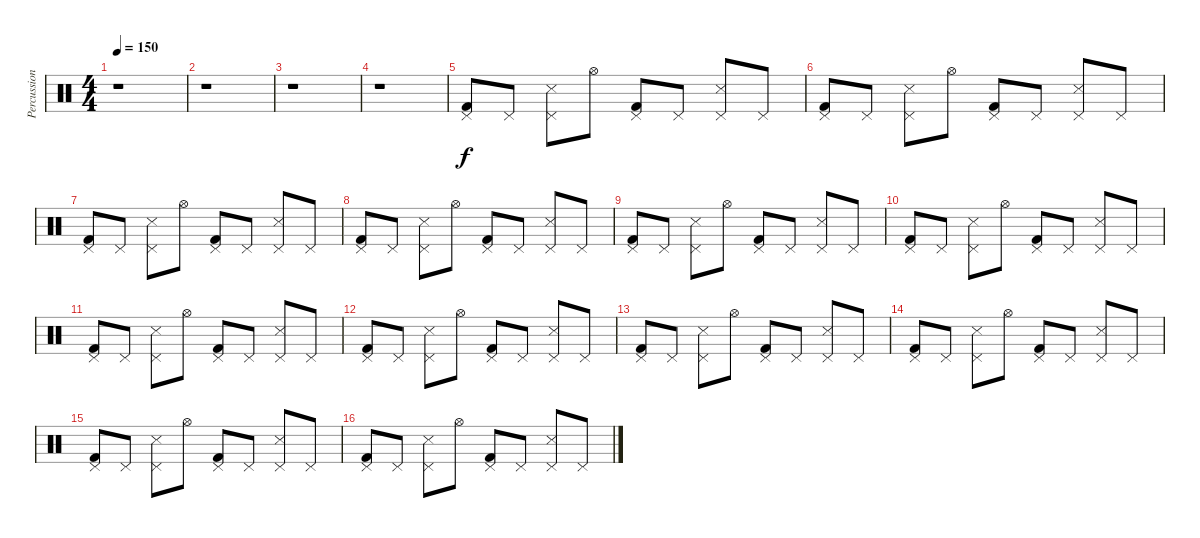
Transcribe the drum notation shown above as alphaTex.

\track ("Percussion" "Percussion") {instrument percussion}
\staff {score}
\articulation defaults
\ts (4 4)
\tempo 150
\clef neutral
\ks c
r.1{dy f} |
r.1 |
r.1 |
r.1 |
("Kick (hit) 2" "Pedal Hi-Hat (hit)").8 "Pedal Hi-Hat (hit)".8 ("Snare (side stick) 3" "Pedal Hi-Hat (hit)").8 "Hi-Hat (open)".8 ("Kick (hit) 2" "Pedal Hi-Hat (hit)").8 "Pedal Hi-Hat (hit)".8 ("Snare (side stick) 3" "Pedal Hi-Hat (hit)").8 "Pedal Hi-Hat (hit)".8 |
("Kick (hit) 2" "Pedal Hi-Hat (hit)").8 "Pedal Hi-Hat (hit)".8 ("Snare (side stick) 3" "Pedal Hi-Hat (hit)").8 "Hi-Hat (open)".8 ("Kick (hit) 2" "Pedal Hi-Hat (hit)").8 "Pedal Hi-Hat (hit)".8 ("Snare (side stick) 3" "Pedal Hi-Hat (hit)").8 "Pedal Hi-Hat (hit)".8 |
("Kick (hit) 2" "Pedal Hi-Hat (hit)").8 "Pedal Hi-Hat (hit)".8 ("Snare (side stick) 3" "Pedal Hi-Hat (hit)").8 "Hi-Hat (open)".8 ("Kick (hit) 2" "Pedal Hi-Hat (hit)").8 "Pedal Hi-Hat (hit)".8 ("Snare (side stick) 3" "Pedal Hi-Hat (hit)").8 "Pedal Hi-Hat (hit)".8 |
("Kick (hit) 2" "Pedal Hi-Hat (hit)").8 "Pedal Hi-Hat (hit)".8 ("Snare (side stick) 3" "Pedal Hi-Hat (hit)").8 "Hi-Hat (open)".8 ("Kick (hit) 2" "Pedal Hi-Hat (hit)").8 "Pedal Hi-Hat (hit)".8 ("Snare (side stick) 3" "Pedal Hi-Hat (hit)").8 "Pedal Hi-Hat (hit)".8 |
("Kick (hit) 2" "Pedal Hi-Hat (hit)").8 "Pedal Hi-Hat (hit)".8 ("Snare (side stick) 3" "Pedal Hi-Hat (hit)").8 "Hi-Hat (open)".8 ("Kick (hit) 2" "Pedal Hi-Hat (hit)").8 "Pedal Hi-Hat (hit)".8 ("Snare (side stick) 3" "Pedal Hi-Hat (hit)").8 "Pedal Hi-Hat (hit)".8 |
("Kick (hit) 2" "Pedal Hi-Hat (hit)").8 "Pedal Hi-Hat (hit)".8 ("Snare (side stick) 3" "Pedal Hi-Hat (hit)").8 "Hi-Hat (open)".8 ("Kick (hit) 2" "Pedal Hi-Hat (hit)").8 "Pedal Hi-Hat (hit)".8 ("Snare (side stick) 3" "Pedal Hi-Hat (hit)").8 "Pedal Hi-Hat (hit)".8 |
("Kick (hit) 2" "Pedal Hi-Hat (hit)").8 "Pedal Hi-Hat (hit)".8 ("Snare (side stick) 3" "Pedal Hi-Hat (hit)").8 "Hi-Hat (open)".8 ("Kick (hit) 2" "Pedal Hi-Hat (hit)").8 "Pedal Hi-Hat (hit)".8 ("Snare (side stick) 3" "Pedal Hi-Hat (hit)").8 "Pedal Hi-Hat (hit)".8 |
("Kick (hit) 2" "Pedal Hi-Hat (hit)").8 "Pedal Hi-Hat (hit)".8 ("Snare (side stick) 3" "Pedal Hi-Hat (hit)").8 "Hi-Hat (open)".8 ("Kick (hit) 2" "Pedal Hi-Hat (hit)").8 "Pedal Hi-Hat (hit)".8 ("Snare (side stick) 3" "Pedal Hi-Hat (hit)").8 "Pedal Hi-Hat (hit)".8 |
("Kick (hit) 2" "Pedal Hi-Hat (hit)").8 "Pedal Hi-Hat (hit)".8 ("Snare (side stick) 3" "Pedal Hi-Hat (hit)").8 "Hi-Hat (open)".8 ("Kick (hit) 2" "Pedal Hi-Hat (hit)").8 "Pedal Hi-Hat (hit)".8 ("Snare (side stick) 3" "Pedal Hi-Hat (hit)").8 "Pedal Hi-Hat (hit)".8 |
("Kick (hit) 2" "Pedal Hi-Hat (hit)").8 "Pedal Hi-Hat (hit)".8 ("Snare (side stick) 3" "Pedal Hi-Hat (hit)").8 "Hi-Hat (open)".8 ("Kick (hit) 2" "Pedal Hi-Hat (hit)").8 "Pedal Hi-Hat (hit)".8 ("Snare (side stick) 3" "Pedal Hi-Hat (hit)").8 "Pedal Hi-Hat (hit)".8 |
("Kick (hit) 2" "Pedal Hi-Hat (hit)").8 "Pedal Hi-Hat (hit)".8 ("Snare (side stick) 3" "Pedal Hi-Hat (hit)").8 "Hi-Hat (open)".8 ("Kick (hit) 2" "Pedal Hi-Hat (hit)").8 "Pedal Hi-Hat (hit)".8 ("Snare (side stick) 3" "Pedal Hi-Hat (hit)").8 "Pedal Hi-Hat (hit)".8 |
("Kick (hit) 2" "Pedal Hi-Hat (hit)").8 "Pedal Hi-Hat (hit)".8 ("Snare (side stick) 3" "Pedal Hi-Hat (hit)").8 "Hi-Hat (open)".8 ("Kick (hit) 2" "Pedal Hi-Hat (hit)").8 "Pedal Hi-Hat (hit)".8 ("Snare (side stick) 3" "Pedal Hi-Hat (hit)").8 "Pedal Hi-Hat (hit)".8
